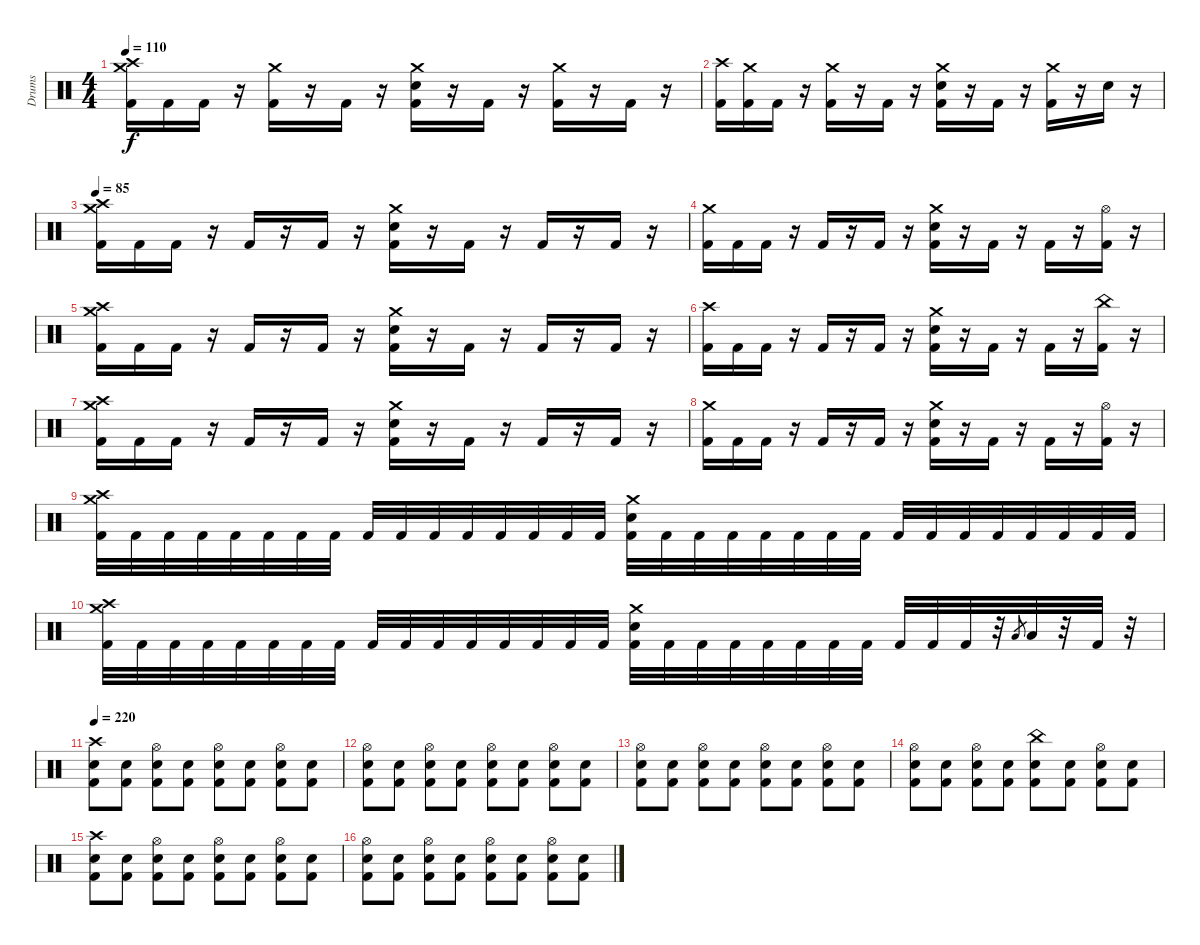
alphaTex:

\track ("Drums" "Drums") {instrument percussion}
\staff {score}
\articulation defaults
\ts (4 4)
\tempo 110
\clef neutral
\ks c
("Crash high (hit)" "Crash medium (hit)" "Kick (hit) 2").16{dy f} "Kick (hit) 2".16 "Kick (hit) 2".16 r.16 ("Crash medium (hit)" "Kick (hit) 2").16 r.16 "Kick (hit) 2".16 r.16 ("Crash medium (hit)" "Electric Snare (hit)" "Kick (hit) 2").16 r.16 "Kick (hit) 2".16 r.16 ("Crash medium (hit)" "Kick (hit) 2").16 r.16 "Kick (hit) 2".16 r.16 |
("Crash high (hit)" "Kick (hit) 2").16 ("Crash medium (hit)" "Kick (hit) 2").16 "Kick (hit) 2".16 r.16 ("Crash medium (hit)" "Kick (hit) 2").16 r.16 "Kick (hit) 2".16 r.16 ("Crash medium (hit)" "Electric Snare (hit)" "Kick (hit) 2").16 r.16 "Kick (hit) 2".16 r.16 ("Crash medium (hit)" "Kick (hit) 2").16 r.16 "Electric Snare (hit)".16 r.16 |
\tempo 85
("Crash high (hit)" "Crash medium (hit)" "Kick (hit) 2").16 "Kick (hit) 2".16 "Kick (hit) 2".16 r.16 "Kick (hit) 2".16 r.16 "Kick (hit) 2".16 r.16 ("Crash medium (hit)" "Electric Snare (hit)" "Kick (hit) 2").16 r.16 "Kick (hit) 2".16 r.16 "Kick (hit) 2".16 r.16 "Kick (hit) 2".16 r.16 |
("Crash medium (hit)" "Kick (hit) 2").16 "Kick (hit) 2".16 "Kick (hit) 2".16 r.16 "Kick (hit) 2".16 r.16 "Kick (hit) 2".16 r.16 ("Crash medium (hit)" "Electric Snare (hit)" "Kick (hit) 2").16 r.16 "Kick (hit) 2".16 r.16 "Kick (hit) 2".16 r.16 ("Hi-Hat (open)" "Kick (hit) 2").16 r.16 |
("Crash high (hit)" "Crash medium (hit)" "Kick (hit) 2").16 "Kick (hit) 2".16 "Kick (hit) 2".16 r.16 "Kick (hit) 2".16 r.16 "Kick (hit) 2".16 r.16 ("Crash medium (hit)" "Electric Snare (hit)" "Kick (hit) 2").16 r.16 "Kick (hit) 2".16 r.16 "Kick (hit) 2".16 r.16 "Kick (hit) 2".16 r.16 |
("Crash high (hit)" "Kick (hit) 2").16 "Kick (hit) 2".16 "Kick (hit) 2".16 r.16 "Kick (hit) 2".16 r.16 "Kick (hit) 2".16 r.16 ("Crash medium (hit)" "Electric Snare (hit)" "Kick (hit) 2").16 r.16 "Kick (hit) 2".16 r.16 "Kick (hit) 2".16 r.16 ("China (hit)" "Kick (hit) 2").16 r.16 |
("Crash high (hit)" "Crash medium (hit)" "Kick (hit) 2").16 "Kick (hit) 2".16 "Kick (hit) 2".16 r.16 "Kick (hit) 2".16 r.16 "Kick (hit) 2".16 r.16 ("Crash medium (hit)" "Electric Snare (hit)" "Kick (hit) 2").16 r.16 "Kick (hit) 2".16 r.16 "Kick (hit) 2".16 r.16 "Kick (hit) 2".16 r.16 |
("Crash medium (hit)" "Kick (hit) 2").16 "Kick (hit) 2".16 "Kick (hit) 2".16 r.16 "Kick (hit) 2".16 r.16 "Kick (hit) 2".16 r.16 ("Crash medium (hit)" "Electric Snare (hit)" "Kick (hit) 2").16 r.16 "Kick (hit) 2".16 r.16 "Kick (hit) 2".16 r.16 ("Hi-Hat (open)" "Kick (hit) 2").16 r.16 |
("Crash high (hit)" "Crash medium (hit)" "Kick (hit) 2").32 "Kick (hit) 2".32 "Kick (hit) 2".32 "Kick (hit) 2".32 "Kick (hit) 2".32 "Kick (hit) 2".32 "Kick (hit) 2".32 "Kick (hit) 2".32 "Kick (hit) 2".32 "Kick (hit) 2".32 "Kick (hit) 2".32 "Kick (hit) 2".32 "Kick (hit) 2".32 "Kick (hit) 2".32 "Kick (hit) 2".32 "Kick (hit) 2".32 ("Crash medium (hit)" "Electric Snare (hit)" "Kick (hit) 2").32 "Kick (hit) 2".32 "Kick (hit) 2".32 "Kick (hit) 2".32 "Kick (hit) 2".32 "Kick (hit) 2".32 "Kick (hit) 2".32 "Kick (hit) 2".32 "Kick (hit) 2".32 "Kick (hit) 2".32 "Kick (hit) 2".32 "Kick (hit) 2".32 "Kick (hit) 2".32 "Kick (hit) 2".32 "Kick (hit) 2".32 "Kick (hit) 2".32 |
("Crash high (hit)" "Crash medium (hit)" "Kick (hit) 2").32 "Kick (hit) 2".32 "Kick (hit) 2".32 "Kick (hit) 2".32 "Kick (hit) 2".32 "Kick (hit) 2".32 "Kick (hit) 2".32 "Kick (hit) 2".32 "Kick (hit) 2".32 "Kick (hit) 2".32 "Kick (hit) 2".32 "Kick (hit) 2".32 "Kick (hit) 2".32 "Kick (hit) 2".32 "Kick (hit) 2".32 "Kick (hit) 2".32 ("Crash medium (hit)" "Electric Snare (hit)" "Kick (hit) 2").32 "Kick (hit) 2".32 "Kick (hit) 2".32 "Kick (hit) 2".32 "Kick (hit) 2".32 "Kick (hit) 2".32 "Kick (hit) 2".32 "Kick (hit) 2".32 "Kick (hit) 2".32 "Kick (hit) 2".32 "Kick (hit) 2".32 r.32 "Low Tom (hit)".8{gr} "Low Floor Tom (hit)".32 r.32 "Kick (hit) 2".32 r.32 |
\tempo 220
("Crash high (hit)" "Electric Snare (hit)" "Kick (hit) 2").8 ("Electric Snare (hit)" "Kick (hit) 2").8 ("Hi-Hat (open)" "Electric Snare (hit)" "Kick (hit) 2").8 ("Electric Snare (hit)" "Kick (hit) 2").8 ("Hi-Hat (open)" "Electric Snare (hit)" "Kick (hit) 2").8 ("Electric Snare (hit)" "Kick (hit) 2").8 ("Hi-Hat (open)" "Electric Snare (hit)" "Kick (hit) 2").8 ("Electric Snare (hit)" "Kick (hit) 2").8 |
("Hi-Hat (open)" "Electric Snare (hit)" "Kick (hit) 2").8 ("Electric Snare (hit)" "Kick (hit) 2").8 ("Hi-Hat (open)" "Electric Snare (hit)" "Kick (hit) 2").8 ("Electric Snare (hit)" "Kick (hit) 2").8 ("Hi-Hat (open)" "Electric Snare (hit)" "Kick (hit) 2").8 ("Electric Snare (hit)" "Kick (hit) 2").8 ("Hi-Hat (open)" "Electric Snare (hit)" "Kick (hit) 2").8 ("Electric Snare (hit)" "Kick (hit) 2").8 |
("Hi-Hat (open)" "Electric Snare (hit)" "Kick (hit) 2").8 ("Electric Snare (hit)" "Kick (hit) 2").8 ("Hi-Hat (open)" "Electric Snare (hit)" "Kick (hit) 2").8 ("Electric Snare (hit)" "Kick (hit) 2").8 ("Hi-Hat (open)" "Electric Snare (hit)" "Kick (hit) 2").8 ("Electric Snare (hit)" "Kick (hit) 2").8 ("Hi-Hat (open)" "Electric Snare (hit)" "Kick (hit) 2").8 ("Electric Snare (hit)" "Kick (hit) 2").8 |
("Hi-Hat (open)" "Electric Snare (hit)" "Kick (hit) 2").8 ("Electric Snare (hit)" "Kick (hit) 2").8 ("Hi-Hat (open)" "Electric Snare (hit)" "Kick (hit) 2").8 ("Electric Snare (hit)" "Kick (hit) 2").8 ("China (hit)" "Electric Snare (hit)" "Kick (hit) 2").8 ("Electric Snare (hit)" "Kick (hit) 2").8 ("Hi-Hat (open)" "Electric Snare (hit)" "Kick (hit) 2").8 ("Electric Snare (hit)" "Kick (hit) 2").8 |
("Crash high (hit)" "Electric Snare (hit)" "Kick (hit) 2").8 ("Electric Snare (hit)" "Kick (hit) 2").8 ("Hi-Hat (open)" "Electric Snare (hit)" "Kick (hit) 2").8 ("Electric Snare (hit)" "Kick (hit) 2").8 ("Hi-Hat (open)" "Electric Snare (hit)" "Kick (hit) 2").8 ("Electric Snare (hit)" "Kick (hit) 2").8 ("Hi-Hat (open)" "Electric Snare (hit)" "Kick (hit) 2").8 ("Electric Snare (hit)" "Kick (hit) 2").8 |
("Hi-Hat (open)" "Electric Snare (hit)" "Kick (hit) 2").8 ("Electric Snare (hit)" "Kick (hit) 2").8 ("Hi-Hat (open)" "Electric Snare (hit)" "Kick (hit) 2").8 ("Electric Snare (hit)" "Kick (hit) 2").8 ("Hi-Hat (open)" "Electric Snare (hit)" "Kick (hit) 2").8 ("Electric Snare (hit)" "Kick (hit) 2").8 ("Hi-Hat (open)" "Electric Snare (hit)" "Kick (hit) 2").8 ("Electric Snare (hit)" "Kick (hit) 2").8
